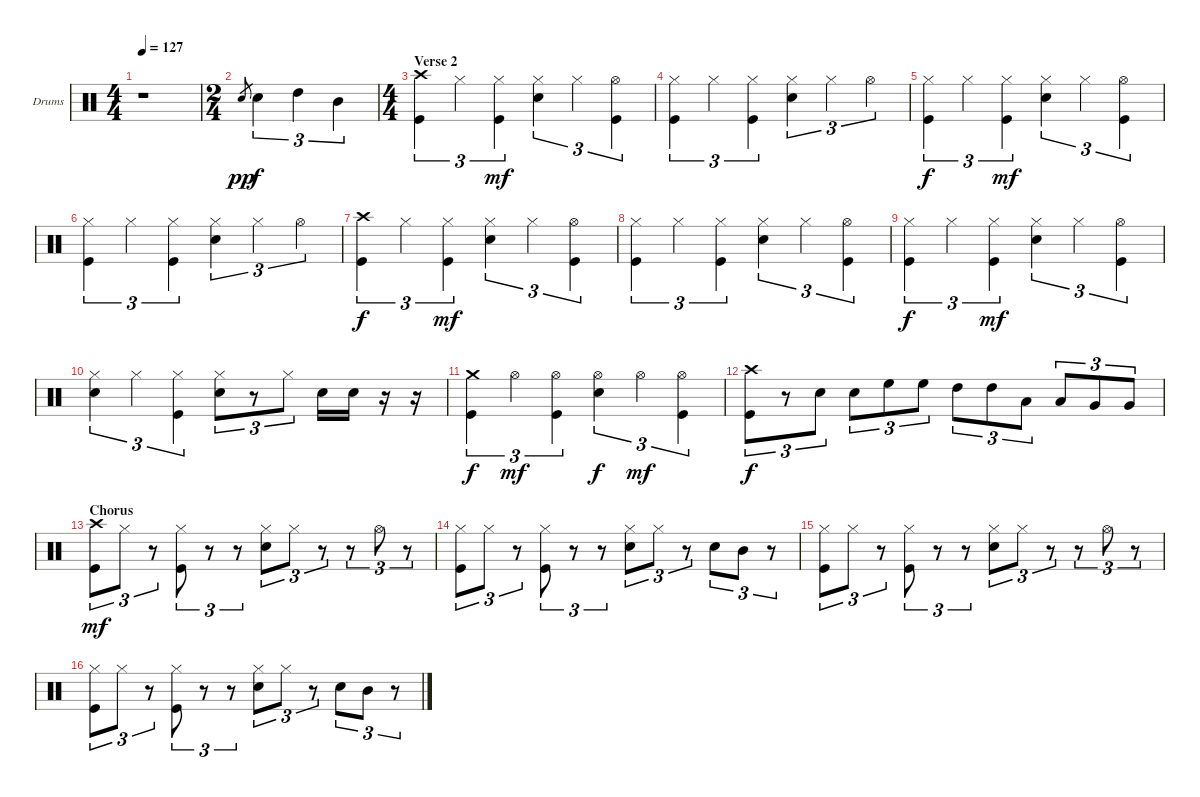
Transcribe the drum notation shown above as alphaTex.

\bracketExtendMode groupsimilarinstruments
\firstSystemTrackNameOrientation horizontal
\otherSystemsTrackNameOrientation horizontal
\track ("Drumkit" "Drums") {instrument percussion}
\staff {score}
\articulation defaults
\ts (4 4)
\tempo 127
\clef neutral
\ks c
r.1{dy mf} |
\ts (2 4)
"Snare (hit) 2".8{gr dy pp} "Snare (hit) 2".4{tu (3 2) dy f} "High Tom (hit)".4{tu (3 2)} "Mid Tom (hit)".4{tu (3 2)} |
\ts (4 4)
\section ("" "Verse 2")
("Crash high (hit)" "Kick (hit)").4{tu (3 2)} "Hi-Hat (closed)".4{tu (3 2)} ("Hi-Hat (closed)" "Kick (hit)").4{tu (3 2) dy mf} ("Hi-Hat (closed)" "Snare (hit) 2").4{tu (3 2)} "Hi-Hat (closed)".4{tu (3 2)} ("Hi-Hat (open)" "Kick (hit)").4{tu (3 2)} |
("Kick (hit)" "Hi-Hat (closed)").4{tu (3 2)} "Hi-Hat (closed)".4{tu (3 2)} ("Hi-Hat (closed)" "Kick (hit)").4{tu (3 2)} ("Hi-Hat (closed)" "Snare (hit) 2").4{tu (3 2)} "Hi-Hat (closed)".4{tu (3 2)} "Hi-Hat (open)".4{tu (3 2)} |
("Kick (hit)" "Hi-Hat (closed)").4{tu (3 2) dy f} "Hi-Hat (closed)".4{tu (3 2)} ("Hi-Hat (closed)" "Kick (hit)").4{tu (3 2) dy mf} ("Hi-Hat (closed)" "Snare (hit) 2").4{tu (3 2)} "Hi-Hat (closed)".4{tu (3 2)} ("Hi-Hat (open)" "Kick (hit)").4{tu (3 2)} |
("Kick (hit)" "Hi-Hat (closed)").4{tu (3 2)} "Hi-Hat (closed)".4{tu (3 2)} ("Hi-Hat (closed)" "Kick (hit)").4{tu (3 2)} ("Hi-Hat (closed)" "Snare (hit) 2").4{tu (3 2)} "Hi-Hat (closed)".4{tu (3 2)} "Hi-Hat (open)".4{tu (3 2)} |
("Crash high (hit)" "Kick (hit)").4{tu (3 2) dy f} "Hi-Hat (closed)".4{tu (3 2)} ("Hi-Hat (closed)" "Kick (hit)").4{tu (3 2) dy mf} ("Hi-Hat (closed)" "Snare (hit) 2").4{tu (3 2)} "Hi-Hat (closed)".4{tu (3 2)} ("Hi-Hat (open)" "Kick (hit)").4{tu (3 2)} |
("Kick (hit)" "Hi-Hat (closed)").4{tu (3 2)} "Hi-Hat (closed)".4{tu (3 2)} ("Hi-Hat (closed)" "Kick (hit)").4{tu (3 2)} ("Hi-Hat (closed)" "Snare (hit) 2").4{tu (3 2)} "Hi-Hat (closed)".4{tu (3 2)} ("Hi-Hat (open)" "Kick (hit)").4{tu (3 2)} |
("Kick (hit)" "Hi-Hat (closed)").4{tu (3 2) dy f} "Hi-Hat (closed)".4{tu (3 2)} ("Hi-Hat (closed)" "Kick (hit)").4{tu (3 2) dy mf} ("Hi-Hat (closed)" "Snare (hit) 2").4{tu (3 2)} "Hi-Hat (closed)".4{tu (3 2)} ("Hi-Hat (open)" "Kick (hit)").4{tu (3 2)} |
("Hi-Hat (closed)" "Snare (hit) 2").4{tu (3 2)} "Hi-Hat (closed)".4{tu (3 2)} ("Hi-Hat (closed)" "Kick (hit)").4{tu (3 2)} ("Snare (hit) 2" "Hi-Hat (closed)").8{tu (3 2)} r.8{tu (3 2)} "Hi-Hat (closed)".8{tu (3 2)} "Snare (hit) 2".16 "Snare (hit) 2".16 r.16 r.16 |
("Crash medium (hit)" "Kick (hit)").4{tu (3 2) dy f} "Hi-Hat (open)".4{tu (3 2) dy mf} ("Hi-Hat (open)" "Kick (hit)").4{tu (3 2)} ("Hi-Hat (open)" "Snare (hit) 2").4{tu (3 2) dy f} "Hi-Hat (open)".4{tu (3 2) dy mf} ("Hi-Hat (open)" "Kick (hit)").4{tu (3 2)} |
("Kick (hit)" "Crash high (hit)").8{tu (3 2) dy f} r.8{tu (3 2)} "Snare (hit) 2".8{tu (3 2)} "Snare (hit) 2".8{tu (3 2)} "High Floor Tom (hit)".8{tu (3 2)} "High Floor Tom (hit)".8{tu (3 2)} "High Tom (hit)".8{tu (3 2)} "High Tom (hit)".8{tu (3 2)} "Low Tom (hit)".8{tu (3 2)} "Low Tom (hit)".8{tu (3 2)} "Very Low Tom (hit)".8{tu (3 2)} "Very Low Tom (hit)".8{tu (3 2)} |
\section ("" "Chorus")
("Kick (hit)" "Crash high (hit)").8{tu (3 2) dy mf} "Hi-Hat (closed)".8{tu (3 2)} r.8{tu (3 2)} ("Hi-Hat (closed)" "Kick (hit)").8{tu (3 2)} r.8{tu (3 2)} r.8{tu (3 2)} ("Snare (hit) 2" "Hi-Hat (closed)").8{tu (3 2)} "Hi-Hat (closed)".8{tu (3 2)} r.8{tu (3 2)} r.8{tu (3 2)} "Hi-Hat (open)".8{tu (3 2)} r.8{tu (3 2)} |
("Kick (hit)" "Hi-Hat (closed)").8{tu (3 2)} "Hi-Hat (closed)".8{tu (3 2)} r.8{tu (3 2)} ("Hi-Hat (closed)" "Kick (hit)").8{tu (3 2)} r.8{tu (3 2)} r.8{tu (3 2)} ("Hi-Hat (closed)" "Snare (hit) 2").8{tu (3 2)} "Hi-Hat (closed)".8{tu (3 2)} r.8{tu (3 2)} "Snare (hit) 2".8{tu (3 2)} "Mid Tom (hit)".8{tu (3 2)} r.8{tu (3 2)} |
("Kick (hit)" "Hi-Hat (closed)").8{tu (3 2)} "Hi-Hat (closed)".8{tu (3 2)} r.8{tu (3 2)} ("Hi-Hat (closed)" "Kick (hit)").8{tu (3 2)} r.8{tu (3 2)} r.8{tu (3 2)} ("Snare (hit) 2" "Hi-Hat (closed)").8{tu (3 2)} "Hi-Hat (closed)".8{tu (3 2)} r.8{tu (3 2)} r.8{tu (3 2)} "Hi-Hat (open)".8{tu (3 2)} r.8{tu (3 2)} |
("Kick (hit)" "Hi-Hat (closed)").8{tu (3 2)} "Hi-Hat (closed)".8{tu (3 2)} r.8{tu (3 2)} ("Hi-Hat (closed)" "Kick (hit)").8{tu (3 2)} r.8{tu (3 2)} r.8{tu (3 2)} ("Hi-Hat (closed)" "Snare (hit) 2").8{tu (3 2)} "Hi-Hat (closed)".8{tu (3 2)} r.8{tu (3 2)} "Snare (hit) 2".8{tu (3 2)} "Mid Tom (hit)".8{tu (3 2)} r.8{tu (3 2)}
